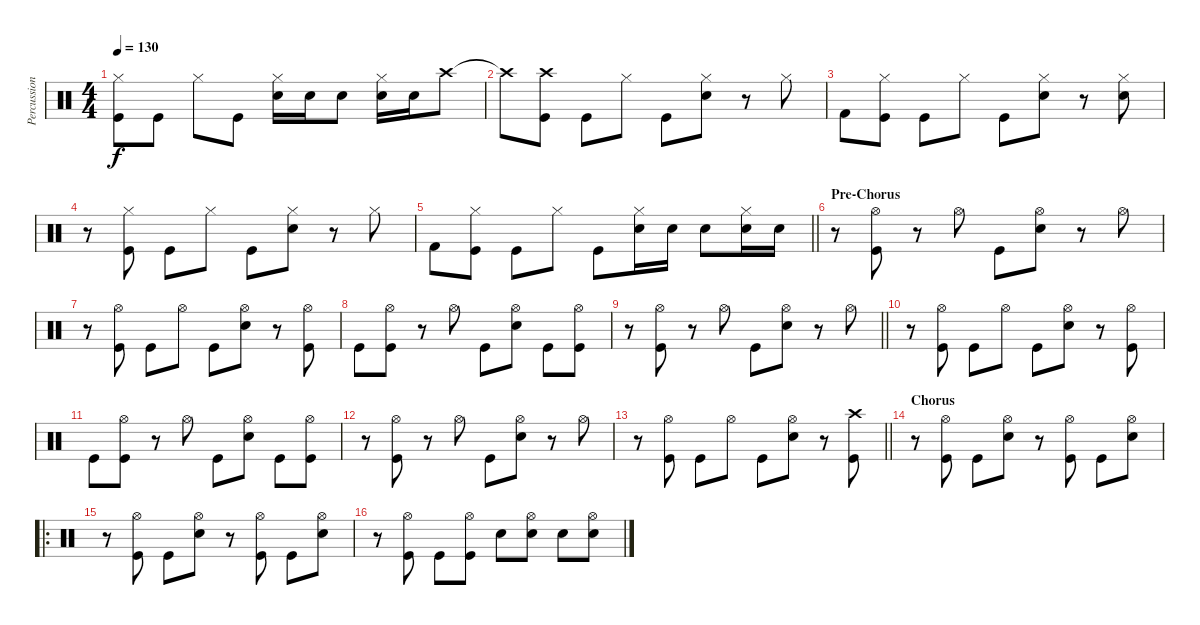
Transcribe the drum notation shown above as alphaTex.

\track ("Percussion" "Percussion") {instrument percussion}
\staff {score}
\articulation defaults
\ts (4 4)
\tempo 130
\clef neutral
\ks c
("Hi-Hat (closed)" "Kick (hit)").8{dy f} "Kick (hit)".8 "Hi-Hat (closed)".8 "Kick (hit)".8 ("Hi-Hat (closed)" "Snare (hit) 2").16 "Snare (hit) 2".16 "Snare (hit) 2".8 ("Hi-Hat (closed)" "Snare (hit) 2").16 "Snare (hit) 2".16 "Crash high (hit)".8 |
"Crash high (hit)"{t}.8 ("Crash high (hit)" "Kick (hit)").8 "Kick (hit)".8 "Hi-Hat (closed)".8 "Kick (hit)".8 ("Hi-Hat (closed)" "Snare (hit) 2").8 r.8 "Hi-Hat (closed)".8 |
"Kick (hit) 2".8 ("Hi-Hat (closed)" "Kick (hit)").8 "Kick (hit)".8 "Hi-Hat (closed)".8 "Kick (hit)".8 ("Hi-Hat (closed)" "Snare (hit) 2").8 r.8 ("Hi-Hat (closed)" "Snare (hit) 2").8 |
r.8 ("Hi-Hat (closed)" "Kick (hit)").8 "Kick (hit)".8 "Hi-Hat (closed)".8 "Kick (hit)".8 ("Hi-Hat (closed)" "Snare (hit) 2").8 r.8 "Hi-Hat (closed)".8 |
\barLineRight lightlight "Kick (hit) 2".8
("Hi-Hat (closed)" "Kick (hit)").8 "Kick (hit)".8 "Hi-Hat (closed)".8 "Kick (hit)".8 ("Hi-Hat (closed)" "Snare (hit) 2").16 "Snare (hit) 2".16 "Snare (hit) 2".8 ("Hi-Hat (closed)" "Snare (hit) 2").16 "Snare (hit) 2".16 |
\section ("" "Pre-Chorus")
r.8 ("Hi-Hat (open)" "Kick (hit)").8 r.8 "Hi-Hat (open)".8 "Kick (hit)".8 ("Hi-Hat (open)" "Snare (hit) 2").8 r.8 "Hi-Hat (open)".8 |
r.8 ("Hi-Hat (open)" "Kick (hit)").8 "Kick (hit)".8 "Hi-Hat (open)".8 "Kick (hit)".8 ("Hi-Hat (open)" "Snare (hit) 2").8 r.8 ("Hi-Hat (open)" "Kick (hit)").8 |
"Kick (hit)".8 ("Hi-Hat (open)" "Kick (hit)").8 r.8 "Hi-Hat (open)".8 "Kick (hit)".8 ("Hi-Hat (open)" "Snare (hit) 2").8 "Kick (hit)".8 ("Hi-Hat (open)" "Kick (hit)").8 |
\barLineRight lightlight
r.8 ("Hi-Hat (open)" "Kick (hit)").8 r.8 "Hi-Hat (open)".8 "Kick (hit)".8 ("Hi-Hat (open)" "Snare (hit) 2").8 r.8 "Hi-Hat (open)".8 |
r.8 ("Hi-Hat (open)" "Kick (hit)").8 "Kick (hit)".8 "Hi-Hat (open)".8 "Kick (hit)".8 ("Hi-Hat (open)" "Snare (hit) 2").8 r.8 ("Hi-Hat (open)" "Kick (hit)").8 |
"Kick (hit)".8 ("Hi-Hat (open)" "Kick (hit)").8 r.8 "Hi-Hat (open)".8 "Kick (hit)".8 ("Hi-Hat (open)" "Snare (hit) 2").8 "Kick (hit)".8 ("Hi-Hat (open)" "Kick (hit)").8 |
r.8 ("Hi-Hat (open)" "Kick (hit)").8 r.8 "Hi-Hat (open)".8 "Kick (hit)".8 ("Hi-Hat (open)" "Snare (hit) 2").8 r.8 "Hi-Hat (open)".8 |
\barLineRight lightlight
r.8 ("Hi-Hat (open)" "Kick (hit)").8 "Kick (hit)".8 "Hi-Hat (open)".8 "Kick (hit)".8 ("Hi-Hat (open)" "Snare (hit) 2").8 r.8 ("Crash high (hit)" "Kick (hit)").8 |
\section ("" "Chorus")
r.8 ("Hi-Hat (open)" "Kick (hit)").8 "Kick (hit)".8 ("Hi-Hat (open)" "Snare (hit) 2").8 r.8 ("Hi-Hat (open)" "Kick (hit)").8 "Kick (hit)".8 ("Hi-Hat (open)" "Snare (hit) 2").8 |
\ro
r.8 ("Hi-Hat (open)" "Kick (hit)").8 "Kick (hit)".8 ("Hi-Hat (open)" "Snare (hit) 2").8 r.8 ("Hi-Hat (open)" "Kick (hit)").8 "Kick (hit)".8 ("Hi-Hat (open)" "Snare (hit) 2").8 |
r.8 ("Hi-Hat (open)" "Kick (hit)").8 "Kick (hit)".8 ("Hi-Hat (open)" "Kick (hit)").8 "Snare (hit) 2".8 ("Hi-Hat (open)" "Snare (hit) 2").8 "Snare (hit) 2".8 ("Hi-Hat (open)" "Snare (hit) 2").8
